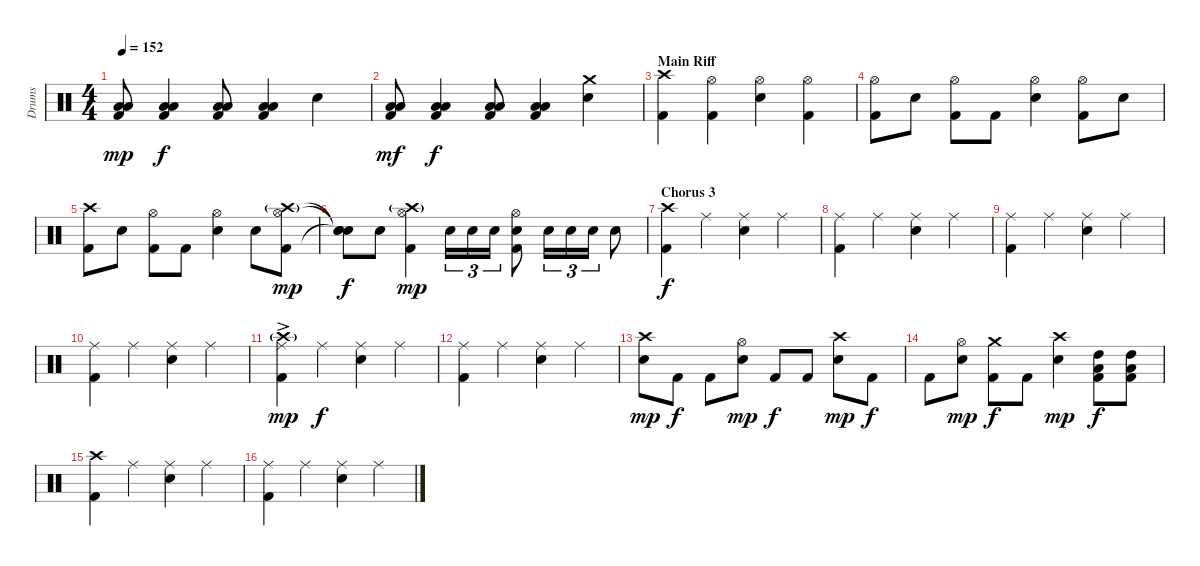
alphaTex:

\track ("Drums" "Drums") {instrument percussion}
\staff {score}
\articulation defaults
\ts (4 4)
\tempo 152
\clef neutral
\ks c
("Low Tom (hit)" "Low Floor Tom (hit)" "Kick (hit) 2").8{dy mp} ("Low Tom (hit)" "Low Floor Tom (hit)" "Kick (hit) 2").4{dy f} ("Low Tom (hit)" "Low Floor Tom (hit)" "Kick (hit) 2").8 ("Low Tom (hit)" "Low Floor Tom (hit)" "Kick (hit) 2").4 "Electric Snare (hit)".4 |
("Low Tom (hit)" "Low Floor Tom (hit)" "Kick (hit) 2").8{dy mf} ("Low Tom (hit)" "Low Floor Tom (hit)" "Kick (hit) 2").4{dy f} ("Low Tom (hit)" "Low Floor Tom (hit)" "Kick (hit) 2").8 ("Low Tom (hit)" "Low Floor Tom (hit)" "Kick (hit) 2").4 ("Crash medium (hit)" "Electric Snare (hit)").4 |
\section ("" "Main Riff")
("Crash high (hit)" "Kick (hit) 2").4 ("Hi-Hat (open)" "Kick (hit) 2").4 ("Hi-Hat (open)" "Electric Snare (hit)").4 ("Hi-Hat (open)" "Kick (hit) 2").4 |
("Hi-Hat (open)" "Kick (hit) 2").8 "Electric Snare (hit)".8 ("Hi-Hat (open)" "Kick (hit) 2").8 "Kick (hit) 2".8 ("Hi-Hat (open)" "Electric Snare (hit)").4 ("Hi-Hat (open)" "Kick (hit) 2").8 "Electric Snare (hit)".8 |
("Crash high (hit)" "Kick (hit) 2").8 "Electric Snare (hit)".8 ("Hi-Hat (open)" "Kick (hit) 2").8 "Kick (hit) 2".8 ("Hi-Hat (open)" "Electric Snare (hit)").4 "Electric Snare (hit)".8 ("Hi-Hat (open)" "Crash high (hit)"{g} "Kick (hit) 2").8{dy mp} |
("Snare (hit)"{t} "Snare (hit)"{t} "Snare (hit)"{t}).8{dy f} "Electric Snare (hit)".8 ("Hi-Hat (open)" "Crash high (hit)"{g} "Kick (hit) 2").4{dy mp} "Electric Snare (hit)".16{tu (3 2)} "Electric Snare (hit)".16{tu (3 2)} "Electric Snare (hit)".16{tu (3 2)} ("Hi-Hat (open)" "Electric Snare (hit)" "Kick (hit) 2").8 "Electric Snare (hit)".16{tu (3 2)} "Electric Snare (hit)".16{tu (3 2)} "Electric Snare (hit)".16{tu (3 2)} "Electric Snare (hit)".8 |
\section ("" "Chorus 3")
("Crash high (hit)" "Kick (hit) 2").4{dy f} "Ride (middle)".4 ("Ride (middle)" "Electric Snare (hit)").4 "Ride (middle)".4 |
("Ride (middle)" "Kick (hit) 2").4 "Ride (middle)".4 ("Ride (middle)" "Electric Snare (hit)").4 "Ride (middle)".4 |
("Ride (middle)" "Kick (hit) 2").4 "Ride (middle)".4 ("Ride (middle)" "Electric Snare (hit)").4 "Ride (middle)".4 |
("Ride (middle)" "Kick (hit) 2").4 "Ride (middle)".4 ("Ride (middle)" "Electric Snare (hit)").4 "Ride (middle)".4 |
("Ride (middle)"{ac} "Crash high (hit)"{g} "Kick (hit) 2").4{dy mp} "Ride (middle)".4{dy f} ("Ride (middle)" "Electric Snare (hit)").4 "Ride (middle)".4 |
("Ride (middle)" "Kick (hit) 2").4 "Ride (middle)".4 ("Ride (middle)" "Electric Snare (hit)").4 "Ride (middle)".4 |
("Crash high (hit)" "Electric Snare (hit)").8{dy mp} "Kick (hit) 2".8{dy f} "Kick (hit) 2".8 ("Hi-Hat (open)" "Electric Snare (hit)").8{dy mp} "Kick (hit) 2".8{dy f} "Kick (hit) 2".8 ("Crash high (hit)" "Electric Snare (hit)").8{dy mp} "Kick (hit) 2".8{dy f} |
"Kick (hit) 2".8 ("Hi-Hat (open)" "Electric Snare (hit)").8{dy mp} ("Crash medium (hit)" "Kick (hit) 2").8{dy f} "Kick (hit) 2".8 ("Crash high (hit)" "Electric Snare (hit)").4{dy mp} ("High Tom (hit)" "Low Tom (hit)" "Kick (hit) 2").8{dy f} ("High Tom (hit)" "Low Tom (hit)" "Kick (hit) 2").8 |
("Crash high (hit)" "Kick (hit) 2").4 "Ride (middle)".4 ("Ride (middle)" "Electric Snare (hit)").4 "Ride (middle)".4 |
("Ride (middle)" "Kick (hit) 2").4 "Ride (middle)".4 ("Ride (middle)" "Electric Snare (hit)").4 "Ride (middle)".4
